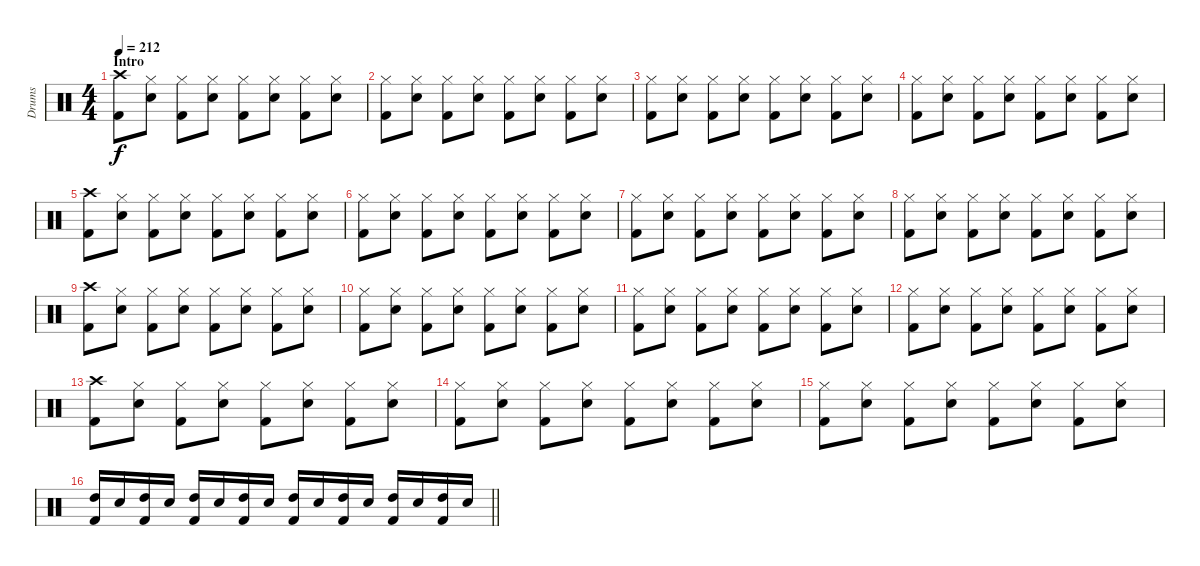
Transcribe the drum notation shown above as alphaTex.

\track ("Drums" "Drums") {instrument percussion}
\staff {score}
\articulation defaults
\ts (4 4)
\section ("" "Intro")
\tempo 212
\clef neutral
\ks c
("Crash high (hit)" "Kick (hit) 2").8{dy f} ("Hi-Hat (closed)" "Electric Snare (hit)").8 ("Hi-Hat (closed)" "Kick (hit) 2").8 ("Hi-Hat (closed)" "Electric Snare (hit)").8 ("Hi-Hat (closed)" "Kick (hit) 2").8 ("Hi-Hat (closed)" "Electric Snare (hit)").8 ("Hi-Hat (closed)" "Kick (hit) 2").8 ("Hi-Hat (closed)" "Electric Snare (hit)").8 |
("Hi-Hat (closed)" "Kick (hit) 2").8 ("Hi-Hat (closed)" "Electric Snare (hit)").8 ("Hi-Hat (closed)" "Kick (hit) 2").8 ("Hi-Hat (closed)" "Electric Snare (hit)").8 ("Hi-Hat (closed)" "Kick (hit) 2").8 ("Hi-Hat (closed)" "Electric Snare (hit)").8 ("Hi-Hat (closed)" "Kick (hit) 2").8 ("Hi-Hat (closed)" "Electric Snare (hit)").8 |
("Hi-Hat (closed)" "Kick (hit) 2").8 ("Hi-Hat (closed)" "Electric Snare (hit)").8 ("Hi-Hat (closed)" "Kick (hit) 2").8 ("Hi-Hat (closed)" "Electric Snare (hit)").8 ("Hi-Hat (closed)" "Kick (hit) 2").8 ("Hi-Hat (closed)" "Electric Snare (hit)").8 ("Hi-Hat (closed)" "Kick (hit) 2").8 ("Hi-Hat (closed)" "Electric Snare (hit)").8 |
("Hi-Hat (closed)" "Kick (hit) 2").8 ("Hi-Hat (closed)" "Electric Snare (hit)").8 ("Hi-Hat (closed)" "Kick (hit) 2").8 ("Hi-Hat (closed)" "Electric Snare (hit)").8 ("Hi-Hat (closed)" "Kick (hit) 2").8 ("Hi-Hat (closed)" "Electric Snare (hit)").8 ("Hi-Hat (closed)" "Kick (hit) 2").8 ("Hi-Hat (closed)" "Electric Snare (hit)").8 |
("Crash high (hit)" "Kick (hit) 2").8 ("Hi-Hat (closed)" "Electric Snare (hit)").8 ("Hi-Hat (closed)" "Kick (hit) 2").8 ("Hi-Hat (closed)" "Electric Snare (hit)").8 ("Hi-Hat (closed)" "Kick (hit) 2").8 ("Hi-Hat (closed)" "Electric Snare (hit)").8 ("Hi-Hat (closed)" "Kick (hit) 2").8 ("Hi-Hat (closed)" "Electric Snare (hit)").8 |
("Hi-Hat (closed)" "Kick (hit) 2").8 ("Hi-Hat (closed)" "Electric Snare (hit)").8 ("Hi-Hat (closed)" "Kick (hit) 2").8 ("Hi-Hat (closed)" "Electric Snare (hit)").8 ("Hi-Hat (closed)" "Kick (hit) 2").8 ("Hi-Hat (closed)" "Electric Snare (hit)").8 ("Hi-Hat (closed)" "Kick (hit) 2").8 ("Hi-Hat (closed)" "Electric Snare (hit)").8 |
("Hi-Hat (closed)" "Kick (hit) 2").8 ("Hi-Hat (closed)" "Electric Snare (hit)").8 ("Hi-Hat (closed)" "Kick (hit) 2").8 ("Hi-Hat (closed)" "Electric Snare (hit)").8 ("Hi-Hat (closed)" "Kick (hit) 2").8 ("Hi-Hat (closed)" "Electric Snare (hit)").8 ("Hi-Hat (closed)" "Kick (hit) 2").8 ("Hi-Hat (closed)" "Electric Snare (hit)").8 |
("Hi-Hat (closed)" "Kick (hit) 2").8 ("Hi-Hat (closed)" "Electric Snare (hit)").8 ("Hi-Hat (closed)" "Kick (hit) 2").8 ("Hi-Hat (closed)" "Electric Snare (hit)").8 ("Hi-Hat (closed)" "Kick (hit) 2").8 ("Hi-Hat (closed)" "Electric Snare (hit)").8 ("Hi-Hat (closed)" "Kick (hit) 2").8 ("Hi-Hat (closed)" "Electric Snare (hit)").8 |
("Crash high (hit)" "Kick (hit) 2").8 ("Hi-Hat (closed)" "Electric Snare (hit)").8 ("Hi-Hat (closed)" "Kick (hit) 2").8 ("Hi-Hat (closed)" "Electric Snare (hit)").8 ("Hi-Hat (closed)" "Kick (hit) 2").8 ("Hi-Hat (closed)" "Electric Snare (hit)").8 ("Hi-Hat (closed)" "Kick (hit) 2").8 ("Hi-Hat (closed)" "Electric Snare (hit)").8 |
("Hi-Hat (closed)" "Kick (hit) 2").8 ("Hi-Hat (closed)" "Electric Snare (hit)").8 ("Hi-Hat (closed)" "Kick (hit) 2").8 ("Hi-Hat (closed)" "Electric Snare (hit)").8 ("Hi-Hat (closed)" "Kick (hit) 2").8 ("Hi-Hat (closed)" "Electric Snare (hit)").8 ("Hi-Hat (closed)" "Kick (hit) 2").8 ("Hi-Hat (closed)" "Electric Snare (hit)").8 |
("Hi-Hat (closed)" "Kick (hit) 2").8 ("Hi-Hat (closed)" "Electric Snare (hit)").8 ("Hi-Hat (closed)" "Kick (hit) 2").8 ("Hi-Hat (closed)" "Electric Snare (hit)").8 ("Hi-Hat (closed)" "Kick (hit) 2").8 ("Hi-Hat (closed)" "Electric Snare (hit)").8 ("Hi-Hat (closed)" "Kick (hit) 2").8 ("Hi-Hat (closed)" "Electric Snare (hit)").8 |
("Hi-Hat (closed)" "Kick (hit) 2").8 ("Hi-Hat (closed)" "Electric Snare (hit)").8 ("Hi-Hat (closed)" "Kick (hit) 2").8 ("Hi-Hat (closed)" "Electric Snare (hit)").8 ("Hi-Hat (closed)" "Kick (hit) 2").8 ("Hi-Hat (closed)" "Electric Snare (hit)").8 ("Hi-Hat (closed)" "Kick (hit) 2").8 ("Hi-Hat (closed)" "Electric Snare (hit)").8 |
("Crash high (hit)" "Kick (hit) 2").8 ("Hi-Hat (closed)" "Electric Snare (hit)").8 ("Hi-Hat (closed)" "Kick (hit) 2").8 ("Hi-Hat (closed)" "Electric Snare (hit)").8 ("Hi-Hat (closed)" "Kick (hit) 2").8 ("Hi-Hat (closed)" "Electric Snare (hit)").8 ("Hi-Hat (closed)" "Kick (hit) 2").8 ("Hi-Hat (closed)" "Electric Snare (hit)").8 |
("Hi-Hat (closed)" "Kick (hit) 2").8 ("Hi-Hat (closed)" "Electric Snare (hit)").8 ("Hi-Hat (closed)" "Kick (hit) 2").8 ("Hi-Hat (closed)" "Electric Snare (hit)").8 ("Hi-Hat (closed)" "Kick (hit) 2").8 ("Hi-Hat (closed)" "Electric Snare (hit)").8 ("Hi-Hat (closed)" "Kick (hit) 2").8 ("Hi-Hat (closed)" "Electric Snare (hit)").8 |
("Hi-Hat (closed)" "Kick (hit) 2").8 ("Hi-Hat (closed)" "Electric Snare (hit)").8 ("Hi-Hat (closed)" "Kick (hit) 2").8 ("Hi-Hat (closed)" "Electric Snare (hit)").8 ("Hi-Hat (closed)" "Kick (hit) 2").8 ("Hi-Hat (closed)" "Electric Snare (hit)").8 ("Hi-Hat (closed)" "Kick (hit) 2").8 ("Hi-Hat (closed)" "Electric Snare (hit)").8 |
\barLineRight lightlight
("High Tom (hit)" "Kick (hit) 2").16 "Electric Snare (hit)".16 ("High Tom (hit)" "Kick (hit) 2").16 "Electric Snare (hit)".16 ("High Tom (hit)" "Kick (hit) 2").16 "Electric Snare (hit)".16 ("High Tom (hit)" "Kick (hit) 2").16 "Electric Snare (hit)".16 ("High Tom (hit)" "Kick (hit) 2").16 "Electric Snare (hit)".16 ("High Tom (hit)" "Kick (hit) 2").16 "Electric Snare (hit)".16 ("High Tom (hit)" "Kick (hit) 2").16 "Electric Snare (hit)".16 ("High Tom (hit)" "Kick (hit) 2").16 "Electric Snare (hit)".16
